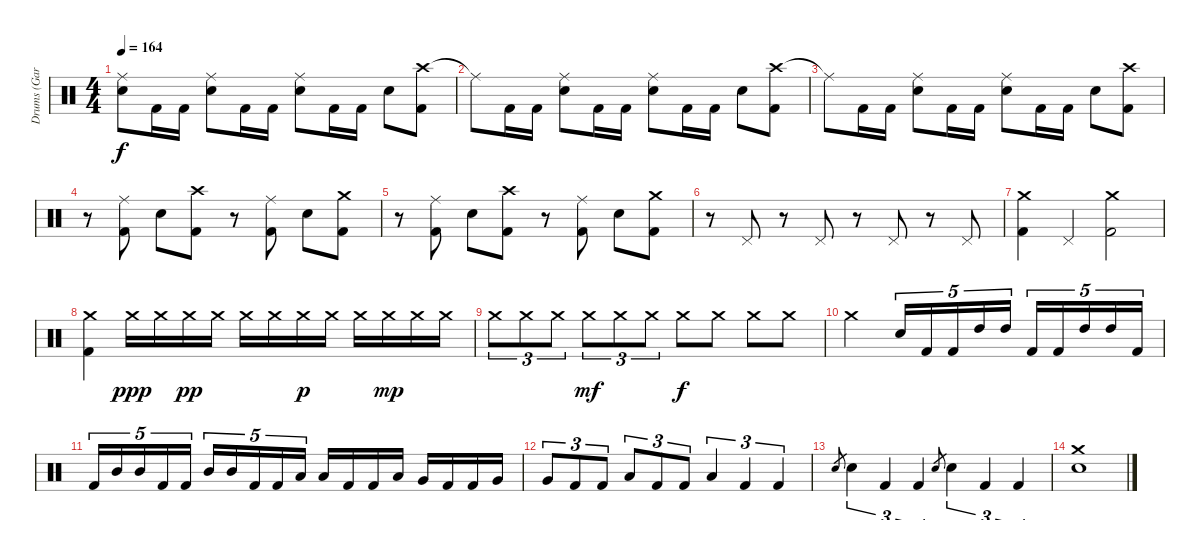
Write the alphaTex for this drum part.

\track ("Drums (Gar Samuelson)" "Drums (Gar") {instrument percussion}
\staff {score}
\articulation defaults
\ts (4 4)
\tempo 164
\clef neutral
\ks c
("Ride (middle)" "Snare (hit) 2").8{dy f} "Kick (hit) 2".16 "Kick (hit) 2".16 ("Ride (middle)" "Snare (hit) 2").8 "Kick (hit) 2".16 "Kick (hit) 2".16 ("Ride (middle)" "Snare (hit) 2").8 "Kick (hit) 2".16 "Kick (hit) 2".16 "Snare (hit) 2".8 ("Crash high (hit)" "Kick (hit) 2").8 |
"Ride (middle)"{t}.8 "Kick (hit) 2".16 "Kick (hit) 2".16 ("Ride (middle)" "Snare (hit) 2").8 "Kick (hit) 2".16 "Kick (hit) 2".16 ("Ride (middle)" "Snare (hit) 2").8 "Kick (hit) 2".16 "Kick (hit) 2".16 "Snare (hit) 2".8 ("Crash high (hit)" "Kick (hit) 2").8 |
"Ride (middle)"{t}.8 "Kick (hit) 2".16 "Kick (hit) 2".16 ("Ride (middle)" "Snare (hit) 2").8 "Kick (hit) 2".16 "Kick (hit) 2".16 ("Ride (middle)" "Snare (hit) 2").8 "Kick (hit) 2".16 "Kick (hit) 2".16 "Snare (hit) 2".8 ("Crash high (hit)" "Kick (hit) 2").8 |
r.8 ("Ride (middle)" "Kick (hit) 2").8 "Snare (hit) 2".8 ("Crash high (hit)" "Kick (hit) 2").8 r.8 ("Ride (middle)" "Kick (hit) 2").8 "Snare (hit) 2".8 ("Crash medium (hit)" "Kick (hit) 2").8 |
r.8 ("Ride (middle)" "Kick (hit) 2").8 "Snare (hit) 2".8 ("Crash high (hit)" "Kick (hit) 2").8 r.8 ("Ride (middle)" "Kick (hit) 2").8 "Snare (hit) 2".8 ("Crash medium (hit)" "Kick (hit) 2").8 |
r.8 "Pedal Hi-Hat (hit)".8 r.8 "Pedal Hi-Hat (hit)".8 r.8 "Pedal Hi-Hat (hit)".8 r.8 "Pedal Hi-Hat (hit)".8 |
("Crash medium (hit)" "Kick (hit) 2").4 "Pedal Hi-Hat (hit)".4 ("Crash medium (hit)" "Kick (hit) 2").2 |
("Crash medium (hit)" "Kick (hit) 2").4 "Crash medium (hit)".16{dy ppp} "Crash medium (hit)".16 "Crash medium (hit)".16{dy pp} "Crash medium (hit)".16 "Crash medium (hit)".16 "Crash medium (hit)".16 "Crash medium (hit)".16{dy p} "Crash medium (hit)".16 "Crash medium (hit)".16 "Crash medium (hit)".16{dy mp} "Crash medium (hit)".16 "Crash medium (hit)".16 |
"Crash medium (hit)".8{tu (3 2)} "Crash medium (hit)".8{tu (3 2)} "Crash medium (hit)".8{tu (3 2)} "Crash medium (hit)".8{tu (3 2) dy mf} "Crash medium (hit)".8{tu (3 2)} "Crash medium (hit)".8{tu (3 2)} "Crash medium (hit)".8{dy f} "Crash medium (hit)".8 "Crash medium (hit)".8 "Crash medium (hit)".8 |
"Crash medium (hit)".2 "Snare (hit) 2".16{tu (5 4)} "Kick (hit) 2".16{tu (5 4)} "Kick (hit) 2".16{tu (5 4)} "High Tom (hit)".16{tu (5 4)} "High Tom (hit)".16{tu (5 4)} "Kick (hit) 2".16{tu (5 4)} "Kick (hit) 2".16{tu (5 4)} "High Tom (hit)".16{tu (5 4)} "High Tom (hit)".16{tu (5 4)} "Kick (hit) 2".16{tu (5 4)} |
"Kick (hit) 2".16{tu (5 4)} "Mid Tom (hit)".16{tu (5 4)} "Mid Tom (hit)".16{tu (5 4)} "Kick (hit) 2".16{tu (5 4)} "Kick (hit) 2".16{tu (5 4)} "Mid Tom (hit)".16{tu (5 4)} "Mid Tom (hit)".16{tu (5 4)} "Kick (hit) 2".16{tu (5 4)} "Kick (hit) 2".16{tu (5 4)} "Low Tom (hit)".16{tu (5 4)} "Low Tom (hit)".16 "Kick (hit) 2".16 "Kick (hit) 2".16 "Low Tom (hit)".16 "Very Low Tom (hit)".16 "Kick (hit) 2".16 "Kick (hit) 2".16 "Very Low Tom (hit)".16 |
"Very Low Tom (hit)".8{tu (3 2)} "Kick (hit) 2".8{tu (3 2)} "Kick (hit) 2".8{tu (3 2)} "Low Floor Tom (hit)".8{tu (3 2)} "Kick (hit) 2".8{tu (3 2)} "Kick (hit) 2".8{tu (3 2)} "Low Floor Tom (hit)".4{tu (3 2)} "Kick (hit) 2".4{tu (3 2)} "Kick (hit) 2".4{tu (3 2)} |
"Snare (hit) 2".8{gr} "Snare (hit) 2".4{tu (3 2)} "Kick (hit) 2".4{tu (3 2)} "Kick (hit) 2".4{tu (3 2)} "Snare (hit) 2".8{gr} "Snare (hit) 2".4{tu (3 2)} "Kick (hit) 2".4{tu (3 2)} "Kick (hit) 2".4{tu (3 2)} |
("Crash medium (hit)" "Snare (hit) 2").1
